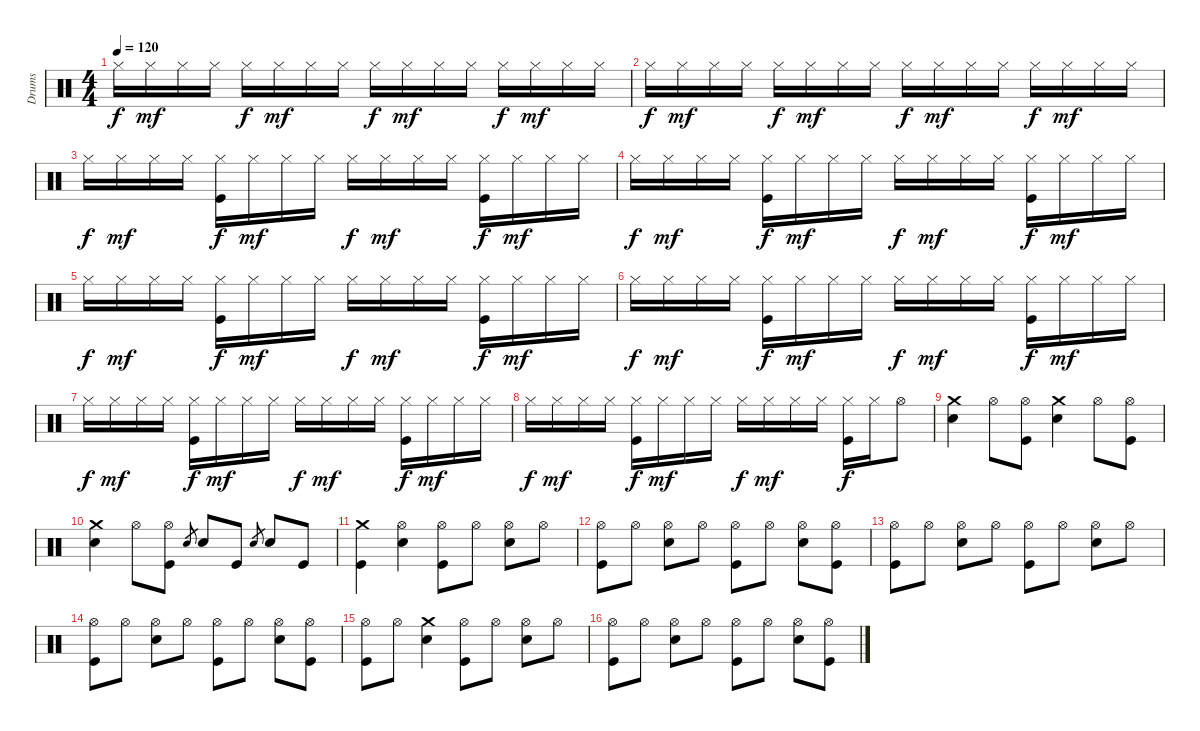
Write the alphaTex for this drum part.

\track ("Drums" "Drums") {instrument percussion}
\staff {score}
\articulation defaults
\ts (4 4)
\tempo 120
\clef neutral
\ks c "Hi-Hat (closed)".16{dy f} "Hi-Hat (closed)".16{dy mf} "Hi-Hat (closed)".16 "Hi-Hat (closed)".16 "Hi-Hat (closed)".16{dy f} "Hi-Hat (closed)".16{dy mf} "Hi-Hat (closed)".16 "Hi-Hat (closed)".16 "Hi-Hat (closed)".16{dy f} "Hi-Hat (closed)".16{dy mf} "Hi-Hat (closed)".16 "Hi-Hat (closed)".16 "Hi-Hat (closed)".16{dy f} "Hi-Hat (closed)".16{dy mf} "Hi-Hat (closed)".16 "Hi-Hat (closed)".16
|
"Hi-Hat (closed)".16{dy f} "Hi-Hat (closed)".16{dy mf} "Hi-Hat (closed)".16 "Hi-Hat (closed)".16 "Hi-Hat (closed)".16{dy f} "Hi-Hat (closed)".16{dy mf} "Hi-Hat (closed)".16 "Hi-Hat (closed)".16 "Hi-Hat (closed)".16{dy f} "Hi-Hat (closed)".16{dy mf} "Hi-Hat (closed)".16 "Hi-Hat (closed)".16 "Hi-Hat (closed)".16{dy f} "Hi-Hat (closed)".16{dy mf} "Hi-Hat (closed)".16 "Hi-Hat (closed)".16 |
"Hi-Hat (closed)".16{dy f} "Hi-Hat (closed)".16{dy mf} "Hi-Hat (closed)".16 "Hi-Hat (closed)".16 ("Kick (hit)" "Hi-Hat (closed)").16{dy f} "Hi-Hat (closed)".16{dy mf} "Hi-Hat (closed)".16 "Hi-Hat (closed)".16 "Hi-Hat (closed)".16{dy f} "Hi-Hat (closed)".16{dy mf} "Hi-Hat (closed)".16 "Hi-Hat (closed)".16 ("Kick (hit)" "Hi-Hat (closed)").16{dy f} "Hi-Hat (closed)".16{dy mf} "Hi-Hat (closed)".16 "Hi-Hat (closed)".16 |
"Hi-Hat (closed)".16{dy f} "Hi-Hat (closed)".16{dy mf} "Hi-Hat (closed)".16 "Hi-Hat (closed)".16 ("Kick (hit)" "Hi-Hat (closed)").16{dy f} "Hi-Hat (closed)".16{dy mf} "Hi-Hat (closed)".16 "Hi-Hat (closed)".16 "Hi-Hat (closed)".16{dy f} "Hi-Hat (closed)".16{dy mf} "Hi-Hat (closed)".16 "Hi-Hat (closed)".16 ("Kick (hit)" "Hi-Hat (closed)").16{dy f} "Hi-Hat (closed)".16{dy mf} "Hi-Hat (closed)".16 "Hi-Hat (closed)".16 |
"Hi-Hat (closed)".16{dy f} "Hi-Hat (closed)".16{dy mf} "Hi-Hat (closed)".16 "Hi-Hat (closed)".16 ("Kick (hit)" "Hi-Hat (closed)").16{dy f} "Hi-Hat (closed)".16{dy mf} "Hi-Hat (closed)".16 "Hi-Hat (closed)".16 "Hi-Hat (closed)".16{dy f} "Hi-Hat (closed)".16{dy mf} "Hi-Hat (closed)".16 "Hi-Hat (closed)".16 ("Kick (hit)" "Hi-Hat (closed)").16{dy f} "Hi-Hat (closed)".16{dy mf} "Hi-Hat (closed)".16 "Hi-Hat (closed)".16 |
"Hi-Hat (closed)".16{dy f} "Hi-Hat (closed)".16{dy mf} "Hi-Hat (closed)".16 "Hi-Hat (closed)".16 ("Kick (hit)" "Hi-Hat (closed)").16{dy f} "Hi-Hat (closed)".16{dy mf} "Hi-Hat (closed)".16 "Hi-Hat (closed)".16 "Hi-Hat (closed)".16{dy f} "Hi-Hat (closed)".16{dy mf} "Hi-Hat (closed)".16 "Hi-Hat (closed)".16 ("Kick (hit)" "Hi-Hat (closed)").16{dy f} "Hi-Hat (closed)".16{dy mf} "Hi-Hat (closed)".16 "Hi-Hat (closed)".16 |
"Hi-Hat (closed)".16{dy f} "Hi-Hat (closed)".16{dy mf} "Hi-Hat (closed)".16 "Hi-Hat (closed)".16 ("Kick (hit)" "Hi-Hat (closed)").16{dy f} "Hi-Hat (closed)".16{dy mf} "Hi-Hat (closed)".16 "Hi-Hat (closed)".16 "Hi-Hat (closed)".16{dy f} "Hi-Hat (closed)".16{dy mf} "Hi-Hat (closed)".16 "Hi-Hat (closed)".16 ("Kick (hit)" "Hi-Hat (closed)").16{dy f} "Hi-Hat (closed)".16{dy mf} "Hi-Hat (closed)".16 "Hi-Hat (closed)".16 |
"Hi-Hat (closed)".16{dy f} "Hi-Hat (closed)".16{dy mf} "Hi-Hat (closed)".16 "Hi-Hat (closed)".16 ("Kick (hit)" "Hi-Hat (closed)").16{dy f} "Hi-Hat (closed)".16{dy mf} "Hi-Hat (closed)".16 "Hi-Hat (closed)".16 "Hi-Hat (closed)".16{dy f} "Hi-Hat (closed)".16{dy mf} "Hi-Hat (closed)".16 "Hi-Hat (closed)".16 ("Kick (hit)" "Hi-Hat (closed)").16{dy f} "Hi-Hat (closed)".16 "Hi-Hat (open)".8 |
("Electric Snare (hit)" "Crash medium (hit)").4 "Hi-Hat (open)".8 ("Kick (hit)" "Hi-Hat (open)").8 ("Electric Snare (hit)" "Crash medium (hit)").4 "Hi-Hat (open)".8 ("Kick (hit)" "Hi-Hat (open)").8 |
("Electric Snare (hit)" "Crash medium (hit)").4 "Hi-Hat (open)".8 ("Kick (hit)" "Hi-Hat (open)").8 "Electric Snare (hit)".8{gr} "Electric Snare (hit)".8 "Kick (hit)".8 "Electric Snare (hit)".8{gr} "Electric Snare (hit)".8 "Kick (hit)".8 |
("Kick (hit)" "Crash medium (hit)").4 ("Electric Snare (hit)" "Hi-Hat (open)").4 ("Kick (hit)" "Hi-Hat (open)").8 "Hi-Hat (open)".8 ("Electric Snare (hit)" "Hi-Hat (open)").8 "Hi-Hat (open)".8 |
("Kick (hit)" "Hi-Hat (open)").8 "Hi-Hat (open)".8 ("Electric Snare (hit)" "Hi-Hat (open)").8 "Hi-Hat (open)".8 ("Kick (hit)" "Hi-Hat (open)").8 "Hi-Hat (open)".8 ("Electric Snare (hit)" "Hi-Hat (open)").8 ("Kick (hit)" "Hi-Hat (open)").8 |
("Kick (hit)" "Hi-Hat (open)").8 "Hi-Hat (open)".8 ("Electric Snare (hit)" "Hi-Hat (open)").8 "Hi-Hat (open)".8 ("Kick (hit)" "Hi-Hat (open)").8 "Hi-Hat (open)".8 ("Electric Snare (hit)" "Hi-Hat (open)").8 "Hi-Hat (open)".8 |
("Kick (hit)" "Hi-Hat (open)").8 "Hi-Hat (open)".8 ("Electric Snare (hit)" "Hi-Hat (open)").8 "Hi-Hat (open)".8 ("Kick (hit)" "Hi-Hat (open)").8 "Hi-Hat (open)".8 ("Electric Snare (hit)" "Hi-Hat (open)").8 ("Kick (hit)" "Hi-Hat (open)").8 |
("Kick (hit)" "Hi-Hat (open)").8 "Hi-Hat (open)".8 ("Electric Snare (hit)" "Crash medium (hit)").4 ("Kick (hit)" "Hi-Hat (open)").8 "Hi-Hat (open)".8 ("Electric Snare (hit)" "Hi-Hat (open)").8 "Hi-Hat (open)".8 |
("Kick (hit)" "Hi-Hat (open)").8 "Hi-Hat (open)".8 ("Electric Snare (hit)" "Hi-Hat (open)").8 "Hi-Hat (open)".8 ("Kick (hit)" "Hi-Hat (open)").8 "Hi-Hat (open)".8 ("Electric Snare (hit)" "Hi-Hat (open)").8 ("Kick (hit)" "Hi-Hat (open)").8
